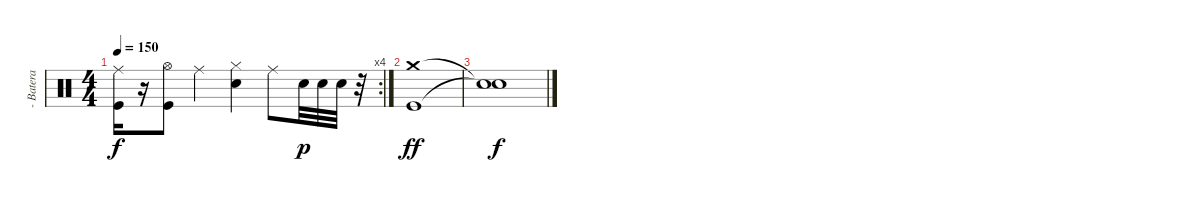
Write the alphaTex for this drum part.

\track ("- Batera" "- Batera") {instrument percussion}
\staff {score}
\articulation defaults
\rc 4
\ts (4 4)
\tempo 150
\clef neutral
\ks c
("Ride (middle)" "Kick (hit)").16{dy f} r.16 ("Hi-Hat (open)" "Kick (hit)").8 "Ride (middle)".4 ("Hi-Hat (closed)" "Snare (hit) 2").4 "Ride (middle)".8 "Snare (hit) 2".32{dy p} "Snare (hit) 2".32 "Snare (hit) 2".32 r.32 |
("Crash medium (hit)" "Kick (hit)").1{dy ff} |
("Snare (hit)"{t} "Snare (hit)"{t}).1{dy f volume 0}
